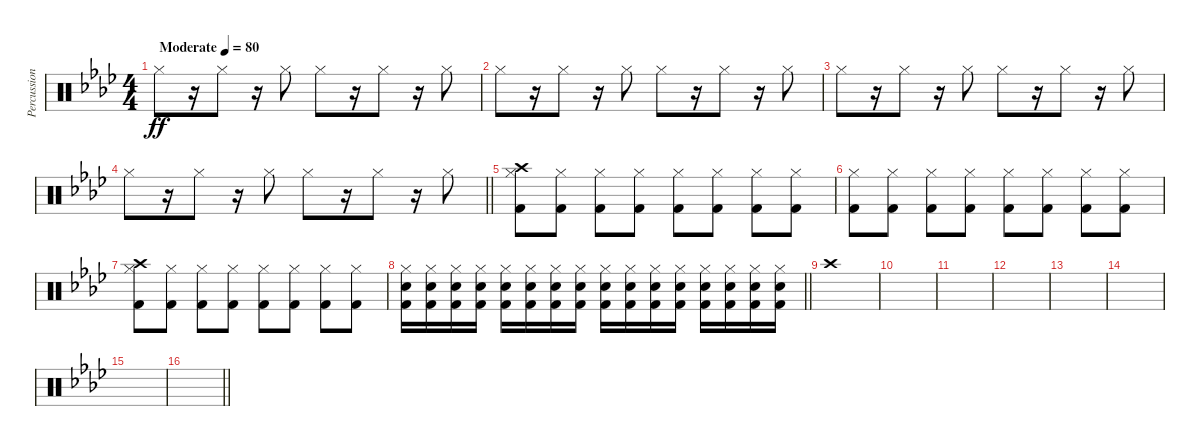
\track ("Percussion" "Percussion") {instrument percussion}
\staff {score}
\articulation defaults
\ts (4 4)
\tempo (80 "Moderate")
\clef neutral
\ks fminor "Hi-Hat (closed)".8{dy ff}
r.16 "Hi-Hat (closed)".8 r.16 "Hi-Hat (closed)".8 "Hi-Hat (closed)".8 r.16 "Hi-Hat (closed)".8 r.16 "Hi-Hat (closed)".8 |
"Hi-Hat (closed)".8 r.16 "Hi-Hat (closed)".8 r.16 "Hi-Hat (closed)".8 "Hi-Hat (closed)".8 r.16 "Hi-Hat (closed)".8 r.16 "Hi-Hat (closed)".8 |
"Hi-Hat (closed)".8 r.16 "Hi-Hat (closed)".8 r.16 "Hi-Hat (closed)".8 "Hi-Hat (closed)".8 r.16 "Hi-Hat (closed)".8 r.16 "Hi-Hat (closed)".8 |
\barLineRight lightlight "Hi-Hat (closed)".8
r.16 "Hi-Hat (closed)".8 r.16 "Hi-Hat (closed)".8 "Hi-Hat (closed)".8 r.16 "Hi-Hat (closed)".8 r.16 "Hi-Hat (closed)".8 |
("Hi-Hat (closed)" "Kick (hit) 2" "Crash high (hit)").8 ("Hi-Hat (closed)" "Kick (hit) 2").8 ("Hi-Hat (closed)" "Kick (hit) 2").8 ("Hi-Hat (closed)" "Kick (hit) 2").8 ("Hi-Hat (closed)" "Kick (hit) 2").8 ("Hi-Hat (closed)" "Kick (hit) 2").8 ("Hi-Hat (closed)" "Kick (hit) 2").8 ("Hi-Hat (closed)" "Kick (hit) 2").8 |
("Hi-Hat (closed)" "Kick (hit) 2").8 ("Hi-Hat (closed)" "Kick (hit) 2").8 ("Hi-Hat (closed)" "Kick (hit) 2").8 ("Hi-Hat (closed)" "Kick (hit) 2").8 ("Hi-Hat (closed)" "Kick (hit) 2").8 ("Hi-Hat (closed)" "Kick (hit) 2").8 ("Hi-Hat (closed)" "Kick (hit) 2").8 ("Hi-Hat (closed)" "Kick (hit) 2").8 |
("Hi-Hat (closed)" "Kick (hit) 2" "Crash high (hit)").8 ("Hi-Hat (closed)" "Kick (hit) 2").8 ("Hi-Hat (closed)" "Kick (hit) 2").8 ("Hi-Hat (closed)" "Kick (hit) 2").8 ("Hi-Hat (closed)" "Kick (hit) 2").8 ("Hi-Hat (closed)" "Kick (hit) 2").8 ("Hi-Hat (closed)" "Kick (hit) 2").8 ("Hi-Hat (closed)" "Kick (hit) 2").8 |
\barLineRight lightlight
("Hi-Hat (closed)" "Kick (hit) 2" "Snare (hit) 2").16 ("Hi-Hat (closed)" "Kick (hit) 2" "Snare (hit) 2").16 ("Hi-Hat (closed)" "Kick (hit) 2" "Snare (hit) 2").16 ("Hi-Hat (closed)" "Kick (hit) 2" "Snare (hit) 2").16 ("Hi-Hat (closed)" "Kick (hit) 2" "Snare (hit) 2").16 ("Hi-Hat (closed)" "Kick (hit) 2" "Snare (hit) 2").16 ("Hi-Hat (closed)" "Kick (hit) 2" "Snare (hit) 2").16 ("Hi-Hat (closed)" "Kick (hit) 2" "Snare (hit) 2").16 ("Hi-Hat (closed)" "Kick (hit) 2" "Snare (hit) 2").16 ("Hi-Hat (closed)" "Kick (hit) 2" "Snare (hit) 2").16 ("Hi-Hat (closed)" "Kick (hit) 2" "Snare (hit) 2").16 ("Hi-Hat (closed)" "Kick (hit) 2" "Snare (hit) 2").16 ("Hi-Hat (closed)" "Kick (hit) 2" "Snare (hit) 2").16 ("Hi-Hat (closed)" "Kick (hit) 2" "Snare (hit) 2").16 ("Hi-Hat (closed)" "Kick (hit) 2" "Snare (hit) 2").16 ("Hi-Hat (closed)" "Kick (hit) 2" "Snare (hit) 2").16 |
"Crash high (hit)".1 |
|
|
|
|
|
|
\barLineRight lightlight
